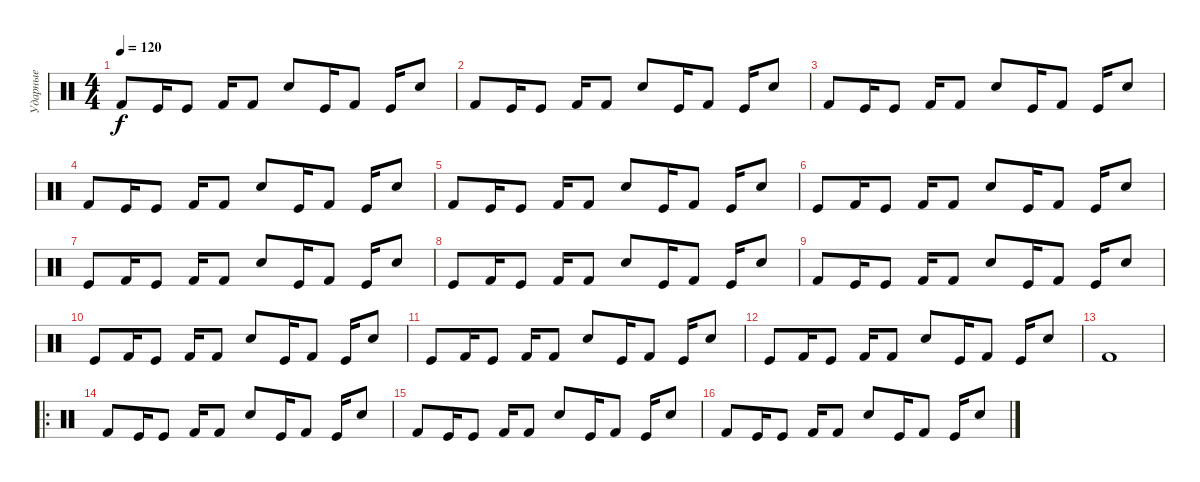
\track ("Ударные" "Ударные") {instrument percussion}
\staff {score}
\articulation defaults
\ts (4 4)
\tempo 120
\clef neutral
\ks c "Kick (hit) 2".8{dy f} "Kick (hit)".16 "Kick (hit)".8 "Kick (hit) 2".16 "Kick (hit) 2".8 "Hand Clap (hit)".8 "Kick (hit)".16 "Kick (hit) 2".8 "Kick (hit)".16 "Snare (hit) 2".8
|
"Kick (hit) 2".8 "Kick (hit)".16 "Kick (hit)".8 "Kick (hit) 2".16 "Kick (hit) 2".8 "Hand Clap (hit)".8 "Kick (hit)".16 "Kick (hit) 2".8 "Kick (hit)".16 "Snare (hit) 2".8 |
"Kick (hit) 2".8 "Kick (hit)".16 "Kick (hit)".8 "Kick (hit) 2".16 "Kick (hit) 2".8 "Hand Clap (hit)".8 "Kick (hit)".16 "Kick (hit) 2".8 "Kick (hit)".16 "Snare (hit) 2".8 |
"Kick (hit) 2".8 "Kick (hit)".16 "Kick (hit)".8 "Kick (hit) 2".16 "Kick (hit) 2".8 "Hand Clap (hit)".8 "Kick (hit)".16 "Kick (hit) 2".8 "Kick (hit)".16 "Snare (hit) 2".8 |
"Kick (hit) 2".8 "Kick (hit)".16 "Kick (hit)".8 "Kick (hit) 2".16 "Kick (hit) 2".8 "Hand Clap (hit)".8 "Kick (hit)".16 "Kick (hit) 2".8 "Kick (hit)".16 "Snare (hit) 2".8 |
"Kick (hit)".8 "Kick (hit) 2".16 "Kick (hit)".8 "Kick (hit) 2".16 "Kick (hit) 2".8 "Hand Clap (hit)".8 "Kick (hit)".16 "Kick (hit) 2".8 "Kick (hit)".16 "Snare (hit) 2".8 |
"Kick (hit)".8 "Kick (hit) 2".16 "Kick (hit)".8 "Kick (hit) 2".16 "Kick (hit) 2".8 "Hand Clap (hit)".8 "Kick (hit)".16 "Kick (hit) 2".8 "Kick (hit)".16 "Snare (hit) 2".8 |
"Kick (hit)".8 "Kick (hit) 2".16 "Kick (hit)".8 "Kick (hit) 2".16 "Kick (hit) 2".8 "Hand Clap (hit)".8 "Kick (hit)".16 "Kick (hit) 2".8 "Kick (hit)".16 "Snare (hit) 2".8 |
"Kick (hit) 2".8 "Kick (hit)".16 "Kick (hit)".8 "Kick (hit) 2".16 "Kick (hit) 2".8 "Hand Clap (hit)".8 "Kick (hit)".16 "Kick (hit) 2".8 "Kick (hit)".16 "Snare (hit) 2".8 |
"Kick (hit)".8 "Kick (hit) 2".16 "Kick (hit)".8 "Kick (hit) 2".16 "Kick (hit) 2".8 "Hand Clap (hit)".8 "Kick (hit)".16 "Kick (hit) 2".8 "Kick (hit)".16 "Snare (hit) 2".8 |
"Kick (hit)".8 "Kick (hit) 2".16 "Kick (hit)".8 "Kick (hit) 2".16 "Kick (hit) 2".8 "Hand Clap (hit)".8 "Kick (hit)".16 "Kick (hit) 2".8 "Kick (hit)".16 "Snare (hit) 2".8 |
"Kick (hit)".8 "Kick (hit) 2".16 "Kick (hit)".8 "Kick (hit) 2".16 "Kick (hit) 2".8 "Hand Clap (hit)".8 "Kick (hit)".16 "Kick (hit) 2".8 "Kick (hit)".16 "Snare (hit) 2".8 |
"Kick (hit) 2".1 |
\ro "Kick (hit) 2".8 "Kick (hit)".16 "Kick (hit)".8 "Kick (hit) 2".16 "Kick (hit) 2".8 "Hand Clap (hit)".8 "Kick (hit)".16 "Kick (hit) 2".8 "Kick (hit)".16 "Snare (hit) 2".8
|
"Kick (hit) 2".8 "Kick (hit)".16 "Kick (hit)".8 "Kick (hit) 2".16 "Kick (hit) 2".8 "Hand Clap (hit)".8 "Kick (hit)".16 "Kick (hit) 2".8 "Kick (hit)".16 "Snare (hit) 2".8 |
"Kick (hit) 2".8 "Kick (hit)".16 "Kick (hit)".8 "Kick (hit) 2".16 "Kick (hit) 2".8 "Hand Clap (hit)".8 "Kick (hit)".16 "Kick (hit) 2".8 "Kick (hit)".16 "Snare (hit) 2".8
